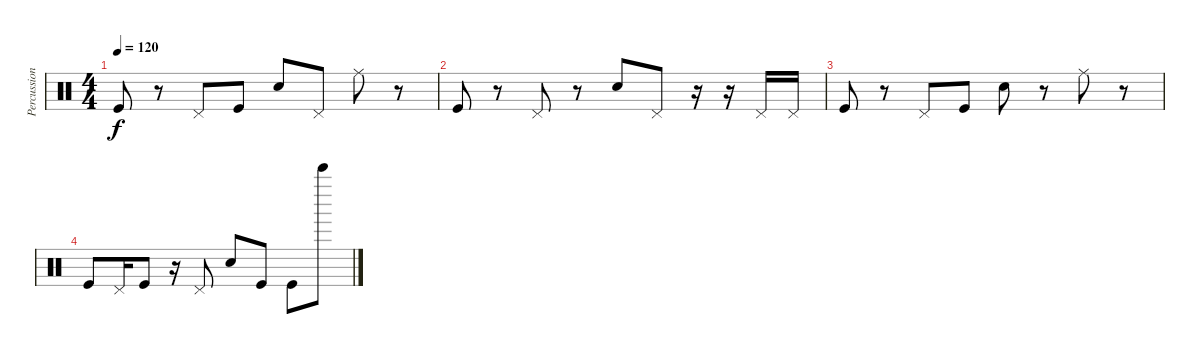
\track ("Percussions" "Percussion") {instrument percussion}
\staff {score}
\articulation defaults
\ts (4 4)
\tempo 120
\clef neutral
\ks c "Kick (hit)".8{dy f}
r.8 "Pedal Hi-Hat (hit)".8 "Kick (hit)".8 "Electric Snare (hit)".8 "Pedal Hi-Hat (hit)".8 "Ride (middle)".8 r.8 |
"Kick (hit)".8 r.8 "Pedal Hi-Hat (hit)".8 r.8 "Electric Snare (hit)".8 "Pedal Hi-Hat (hit)".8 r.16 r.16 "Pedal Hi-Hat (hit)".16 "Pedal Hi-Hat (hit)".16 |
"Kick (hit)".8 r.8 "Pedal Hi-Hat (hit)".8 "Kick (hit)".8 "Electric Snare (hit)".8 r.8 "Ride (middle)".8 r.8 |
"Kick (hit)".8 "Pedal Hi-Hat (hit)".16 "Kick (hit)".8 r.16 "Pedal Hi-Hat (hit)".8 "Electric Snare (hit)".8 "Kick (hit)".8 "Kick (hit)".8 "Bell Tree (hit)".8
